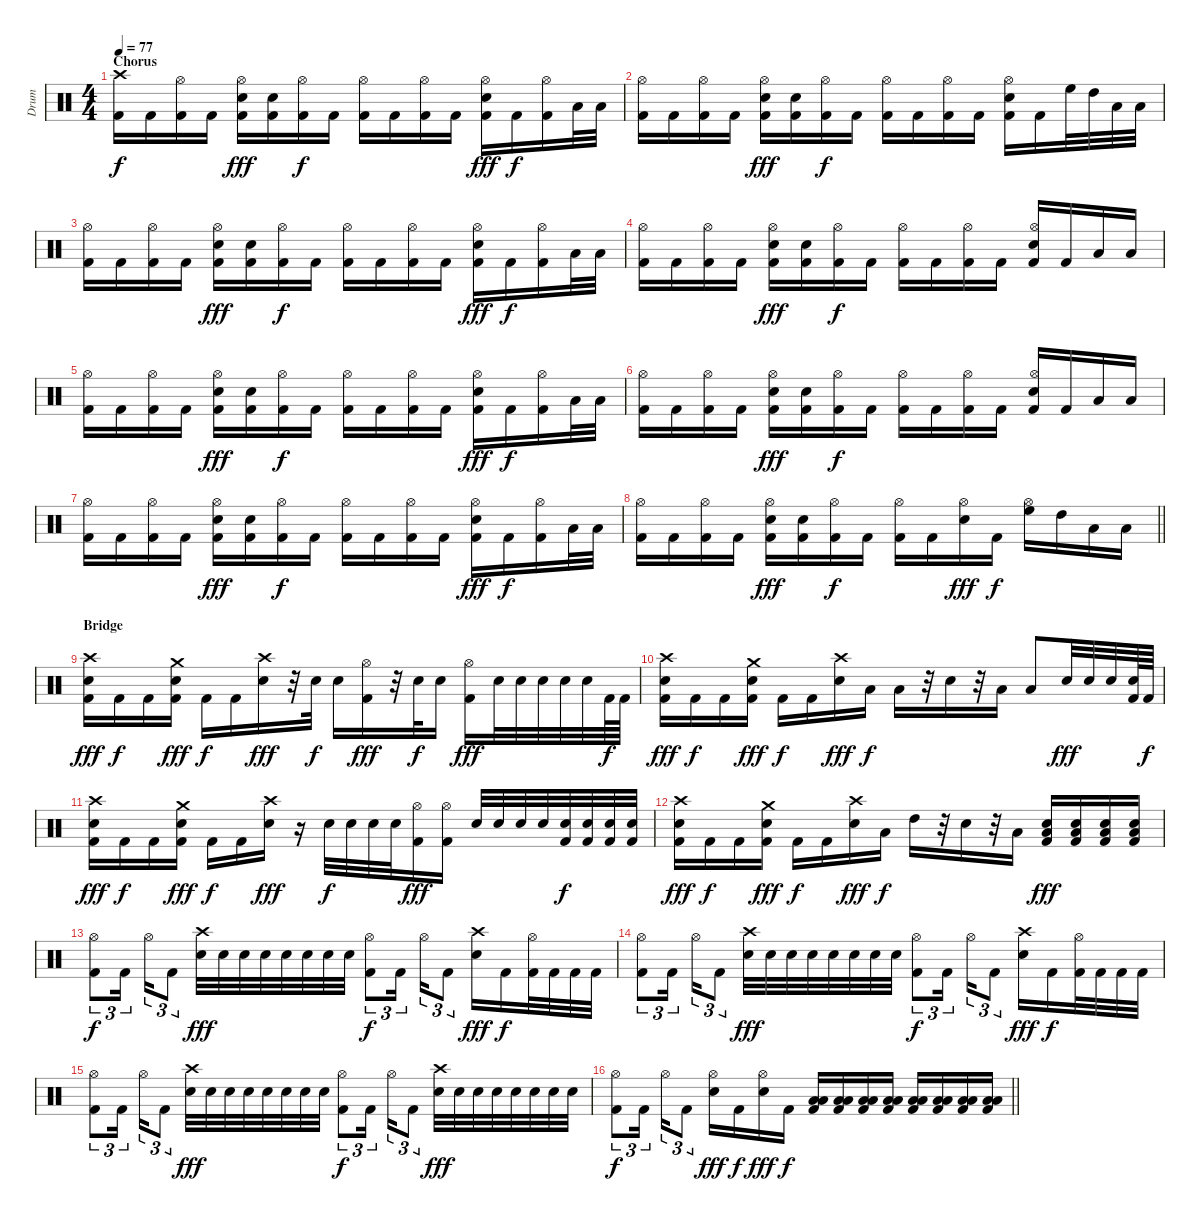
\track ("Drum" "Drum") {instrument percussion}
\staff {score}
\articulation defaults
\ts (4 4)
\section ("" "Chorus")
\tempo 77
\clef neutral
\ks c
("Crash high (hit)" "Kick (hit) 2").16{dy f} "Kick (hit) 2".16 ("Hi-Hat (open)" "Kick (hit) 2").16 "Kick (hit) 2".16 ("Hi-Hat (open)" "Electric Snare (hit)" "Kick (hit) 2").16{dy fff} ("Electric Snare (hit)" "Kick (hit) 2").16 ("Hi-Hat (open)" "Kick (hit) 2").16{dy f} "Kick (hit) 2".16 ("Hi-Hat (open)" "Kick (hit) 2").16 "Kick (hit) 2".16 ("Hi-Hat (open)" "Kick (hit) 2").16 "Kick (hit) 2".16 ("Hi-Hat (open)" "Electric Snare (hit)" "Kick (hit) 2").16{dy fff} "Kick (hit) 2".16{dy f} ("Hi-Hat (open)" "Kick (hit) 2").16 "Low Tom (hit)".32 "Low Floor Tom (hit)".32 |
("Hi-Hat (open)" "Kick (hit) 2").16 "Kick (hit) 2".16 ("Hi-Hat (open)" "Kick (hit) 2").16 "Kick (hit) 2".16 ("Hi-Hat (open)" "Electric Snare (hit)" "Kick (hit) 2").16{dy fff} ("Electric Snare (hit)" "Kick (hit) 2").16 ("Hi-Hat (open)" "Kick (hit) 2").16{dy f} "Kick (hit) 2".16 ("Hi-Hat (open)" "Kick (hit) 2").16 "Kick (hit) 2".16 ("Hi-Hat (open)" "Kick (hit) 2").16 "Kick (hit) 2".16 ("Hi-Hat (open)" "Electric Snare (hit)" "Kick (hit) 2").16 "Kick (hit) 2".16 "High Floor Tom (hit)".32 "High Tom (hit)".32 "Low Tom (hit)".32 "Low Floor Tom (hit)".32 |
("Hi-Hat (open)" "Kick (hit) 2").16 "Kick (hit) 2".16 ("Hi-Hat (open)" "Kick (hit) 2").16 "Kick (hit) 2".16 ("Hi-Hat (open)" "Electric Snare (hit)" "Kick (hit) 2").16{dy fff} ("Electric Snare (hit)" "Kick (hit) 2").16 ("Hi-Hat (open)" "Kick (hit) 2").16{dy f} "Kick (hit) 2".16 ("Hi-Hat (open)" "Kick (hit) 2").16 "Kick (hit) 2".16 ("Hi-Hat (open)" "Kick (hit) 2").16 "Kick (hit) 2".16 ("Hi-Hat (open)" "Electric Snare (hit)" "Kick (hit) 2").16{dy fff} "Kick (hit) 2".16{dy f} ("Hi-Hat (open)" "Kick (hit) 2").16 "Low Tom (hit)".32 "Low Floor Tom (hit)".32 |
("Hi-Hat (open)" "Kick (hit) 2").16 "Kick (hit) 2".16 ("Hi-Hat (open)" "Kick (hit) 2").16 "Kick (hit) 2".16 ("Hi-Hat (open)" "Electric Snare (hit)" "Kick (hit) 2").16{dy fff} ("Electric Snare (hit)" "Kick (hit) 2").16 ("Hi-Hat (open)" "Kick (hit) 2").16{dy f} "Kick (hit) 2".16 ("Hi-Hat (open)" "Kick (hit) 2").16 "Kick (hit) 2".16 ("Hi-Hat (open)" "Kick (hit) 2").16 "Kick (hit) 2".16 ("Hi-Hat (open)" "Electric Snare (hit)" "Kick (hit) 2").16 "Kick (hit) 2".16 "Low Tom (hit)".16 "Low Floor Tom (hit)".16 |
("Hi-Hat (open)" "Kick (hit) 2").16 "Kick (hit) 2".16 ("Hi-Hat (open)" "Kick (hit) 2").16 "Kick (hit) 2".16 ("Hi-Hat (open)" "Electric Snare (hit)" "Kick (hit) 2").16{dy fff} ("Electric Snare (hit)" "Kick (hit) 2").16 ("Hi-Hat (open)" "Kick (hit) 2").16{dy f} "Kick (hit) 2".16 ("Hi-Hat (open)" "Kick (hit) 2").16 "Kick (hit) 2".16 ("Hi-Hat (open)" "Kick (hit) 2").16 "Kick (hit) 2".16 ("Hi-Hat (open)" "Electric Snare (hit)" "Kick (hit) 2").16{dy fff} "Kick (hit) 2".16{dy f} ("Hi-Hat (open)" "Kick (hit) 2").16 "Low Tom (hit)".32 "Low Floor Tom (hit)".32 |
("Hi-Hat (open)" "Kick (hit) 2").16 "Kick (hit) 2".16 ("Hi-Hat (open)" "Kick (hit) 2").16 "Kick (hit) 2".16 ("Hi-Hat (open)" "Electric Snare (hit)" "Kick (hit) 2").16{dy fff} ("Electric Snare (hit)" "Kick (hit) 2").16 ("Hi-Hat (open)" "Kick (hit) 2").16{dy f} "Kick (hit) 2".16 ("Hi-Hat (open)" "Kick (hit) 2").16 "Kick (hit) 2".16 ("Hi-Hat (open)" "Kick (hit) 2").16 "Kick (hit) 2".16 ("Hi-Hat (open)" "Electric Snare (hit)" "Kick (hit) 2").16 "Kick (hit) 2".16 "Low Tom (hit)".16 "Low Floor Tom (hit)".16 |
("Hi-Hat (open)" "Kick (hit) 2").16 "Kick (hit) 2".16 ("Hi-Hat (open)" "Kick (hit) 2").16 "Kick (hit) 2".16 ("Hi-Hat (open)" "Electric Snare (hit)" "Kick (hit) 2").16{dy fff} ("Electric Snare (hit)" "Kick (hit) 2").16 ("Hi-Hat (open)" "Kick (hit) 2").16{dy f} "Kick (hit) 2".16 ("Hi-Hat (open)" "Kick (hit) 2").16 "Kick (hit) 2".16 ("Hi-Hat (open)" "Kick (hit) 2").16 "Kick (hit) 2".16 ("Hi-Hat (open)" "Electric Snare (hit)" "Kick (hit) 2").16{dy fff} "Kick (hit) 2".16{dy f} ("Hi-Hat (open)" "Kick (hit) 2").16 "Low Tom (hit)".32 "Low Floor Tom (hit)".32 |
\barLineRight lightlight
("Hi-Hat (open)" "Kick (hit) 2").16 "Kick (hit) 2".16 ("Hi-Hat (open)" "Kick (hit) 2").16 "Kick (hit) 2".16 ("Hi-Hat (open)" "Electric Snare (hit)" "Kick (hit) 2").16{dy fff} ("Electric Snare (hit)" "Kick (hit) 2").16 ("Hi-Hat (open)" "Kick (hit) 2").16{dy f} "Kick (hit) 2".16 ("Hi-Hat (open)" "Kick (hit) 2").16 "Kick (hit) 2".16 ("Hi-Hat (open)" "Electric Snare (hit)").16{dy fff} "Kick (hit) 2".16{dy f} ("Hi-Hat (open)" "High Floor Tom (hit)").16 "High Tom (hit)".16 "Low Tom (hit)".16 "Low Floor Tom (hit)".16 |
\section ("" "Bridge")
("Crash high (hit)" "Electric Snare (hit)" "Kick (hit) 2").16{dy fff} "Kick (hit) 2".16{dy f} "Kick (hit) 2".16 ("Crash medium (hit)" "Electric Snare (hit)" "Kick (hit) 2").16{dy fff} "Kick (hit) 2".16{dy f} "Kick (hit) 2".16 ("Crash high (hit)" "Electric Snare (hit)").16{dy fff} r.32 "Electric Snare (hit)".32{dy f} "Electric Snare (hit)".16 ("Hi-Hat (open)" "Kick (hit) 2").16{dy fff} r.32 "Electric Snare (hit)".32{dy f} "Electric Snare (hit)".16 ("Hi-Hat (open)" "Kick (hit) 2").16{dy fff} "Electric Snare (hit)".32 "Electric Snare (hit)".32 "Electric Snare (hit)".32 "Electric Snare (hit)".32 "Electric Snare (hit)".32 "Kick (hit) 2".64{dy f} "Kick (hit) 2".64 |
("Crash high (hit)" "Electric Snare (hit)" "Kick (hit) 2").16{dy fff} "Kick (hit) 2".16{dy f} "Kick (hit) 2".16 ("Crash medium (hit)" "Electric Snare (hit)" "Kick (hit) 2").16{dy fff} "Kick (hit) 2".16{dy f} "Kick (hit) 2".16 ("Crash high (hit)" "Electric Snare (hit)").16{dy fff} "Low Tom (hit)".16{dy f} "Low Tom (hit)".16 r.32 "Electric Snare (hit)".16 r.32 "Low Floor Tom (hit)".16 "Low Floor Tom (hit)".8 "Electric Snare (hit)".32{dy fff} "Electric Snare (hit)".32 "Electric Snare (hit)".32 ("Electric Snare (hit)" "Kick (hit) 2").64 "Kick (hit) 2".64{dy f} |
("Crash high (hit)" "Electric Snare (hit)" "Kick (hit) 2").16{dy fff} "Kick (hit) 2".16{dy f} "Kick (hit) 2".16 ("Crash medium (hit)" "Electric Snare (hit)" "Kick (hit) 2").16{dy fff} "Kick (hit) 2".16{dy f} "Kick (hit) 2".16 ("Crash high (hit)" "Electric Snare (hit)").16{dy fff} r.16 "Electric Snare (hit)".32{dy f} "Electric Snare (hit)".32 "Electric Snare (hit)".32 "Electric Snare (hit)".32 ("Hi-Hat (open)" "Kick (hit) 2").16{dy fff} ("Hi-Hat (open)" "Kick (hit) 2").16 "Electric Snare (hit)".32 "Electric Snare (hit)".32 "Electric Snare (hit)".32 "Electric Snare (hit)".32 ("Electric Snare (hit)" "Kick (hit) 2").32{dy f} ("Electric Snare (hit)" "Kick (hit) 2").32 ("Electric Snare (hit)" "Kick (hit) 2").32 ("Electric Snare (hit)" "Kick (hit) 2").32 |
("Crash high (hit)" "Electric Snare (hit)" "Kick (hit) 2").16{dy fff} "Kick (hit) 2".16{dy f} "Kick (hit) 2".16 ("Crash medium (hit)" "Electric Snare (hit)" "Kick (hit) 2").16{dy fff} "Kick (hit) 2".16{dy f} "Kick (hit) 2".16 ("Crash high (hit)" "Electric Snare (hit)").16{dy fff} "Low Tom (hit)".16{dy f} "High Tom (hit)".16 r.32 "Electric Snare (hit)".16 r.32 "Low Tom (hit)".16 ("Low Floor Tom (hit)" "Electric Snare (hit)" "Kick (hit) 2").16{dy fff} ("Low Floor Tom (hit)" "Electric Snare (hit)" "Kick (hit) 2").16 ("Low Floor Tom (hit)" "Electric Snare (hit)" "Kick (hit) 2").16 ("Low Floor Tom (hit)" "Electric Snare (hit)" "Kick (hit) 2").16 |
("Hi-Hat (open)" "Kick (hit) 2").8{tu (3 2) dy f} "Kick (hit) 2".16{tu (3 2) beam splitsecondary} "Hi-Hat (open)".16{tu (3 2)} "Kick (hit) 2".8{tu (3 2)} ("Crash high (hit)" "Electric Snare (hit)").32{dy fff} "Electric Snare (hit)".32 "Electric Snare (hit)".32 "Electric Snare (hit)".32 "Electric Snare (hit)".32 "Electric Snare (hit)".32 "Electric Snare (hit)".32 "Electric Snare (hit)".32 ("Hi-Hat (open)" "Kick (hit) 2").8{tu (3 2) dy f} "Kick (hit) 2".16{tu (3 2) beam splitsecondary} "Hi-Hat (open)".16{tu (3 2)} "Kick (hit) 2".8{tu (3 2)} ("Crash high (hit)" "Electric Snare (hit)").16{dy fff} "Kick (hit) 2".16{dy f} ("Hi-Hat (open)" "Kick (hit) 2").32 "Kick (hit) 2".32 "Kick (hit) 2".32 "Kick (hit) 2".32 |
("Hi-Hat (open)" "Kick (hit) 2").8{tu (3 2)} "Kick (hit) 2".16{tu (3 2) beam splitsecondary} "Hi-Hat (open)".16{tu (3 2)} "Kick (hit) 2".8{tu (3 2)} ("Crash high (hit)" "Electric Snare (hit)").32{dy fff} "Electric Snare (hit)".32 "Electric Snare (hit)".32 "Electric Snare (hit)".32 "Electric Snare (hit)".32 "Electric Snare (hit)".32 "Electric Snare (hit)".32 "Electric Snare (hit)".32 ("Hi-Hat (open)" "Kick (hit) 2").8{tu (3 2) dy f} "Kick (hit) 2".16{tu (3 2) beam splitsecondary} "Hi-Hat (open)".16{tu (3 2)} "Kick (hit) 2".8{tu (3 2)} ("Crash high (hit)" "Electric Snare (hit)").16{dy fff} "Kick (hit) 2".16{dy f} ("Hi-Hat (open)" "Kick (hit) 2").32 "Kick (hit) 2".32 "Kick (hit) 2".32 "Kick (hit) 2".32 |
("Hi-Hat (open)" "Kick (hit) 2").8{tu (3 2)} "Kick (hit) 2".16{tu (3 2) beam splitsecondary} "Hi-Hat (open)".16{tu (3 2)} "Kick (hit) 2".8{tu (3 2)} ("Crash high (hit)" "Electric Snare (hit)").32{dy fff} "Electric Snare (hit)".32 "Electric Snare (hit)".32 "Electric Snare (hit)".32 "Electric Snare (hit)".32 "Electric Snare (hit)".32 "Electric Snare (hit)".32 "Electric Snare (hit)".32 ("Hi-Hat (open)" "Kick (hit) 2").8{tu (3 2) dy f} "Kick (hit) 2".16{tu (3 2) beam splitsecondary} "Hi-Hat (open)".16{tu (3 2)} "Kick (hit) 2".8{tu (3 2)} ("Crash high (hit)" "Electric Snare (hit)").32{dy fff} "Electric Snare (hit)".32 "Electric Snare (hit)".32 "Electric Snare (hit)".32 "Electric Snare (hit)".32 "Electric Snare (hit)".32 "Electric Snare (hit)".32 "Electric Snare (hit)".32 |
\barLineRight lightlight
("Hi-Hat (open)" "Kick (hit) 2").8{tu (3 2) dy f} "Kick (hit) 2".16{tu (3 2) beam splitsecondary} "Hi-Hat (open)".16{tu (3 2)} "Kick (hit) 2".8{tu (3 2)} ("Hi-Hat (open)" "Electric Snare (hit)").16{dy fff} "Kick (hit) 2".16{dy f} ("Hi-Hat (open)" "Electric Snare (hit)").16{dy fff} "Kick (hit) 2".16{dy f} ("Low Floor Tom (hit)" "Low Tom (hit)" "Kick (hit) 2").16 ("Low Floor Tom (hit)" "Low Tom (hit)" "Kick (hit) 2").16 ("Low Floor Tom (hit)" "Low Tom (hit)" "Kick (hit) 2").16 ("Low Floor Tom (hit)" "Low Tom (hit)" "Kick (hit) 2").16 ("Low Floor Tom (hit)" "Low Tom (hit)" "Kick (hit) 2").16 ("Low Floor Tom (hit)" "Low Tom (hit)" "Kick (hit) 2").16 ("Low Floor Tom (hit)" "Low Tom (hit)" "Kick (hit) 2").16 ("Low Floor Tom (hit)" "Low Tom (hit)" "Kick (hit) 2").16
